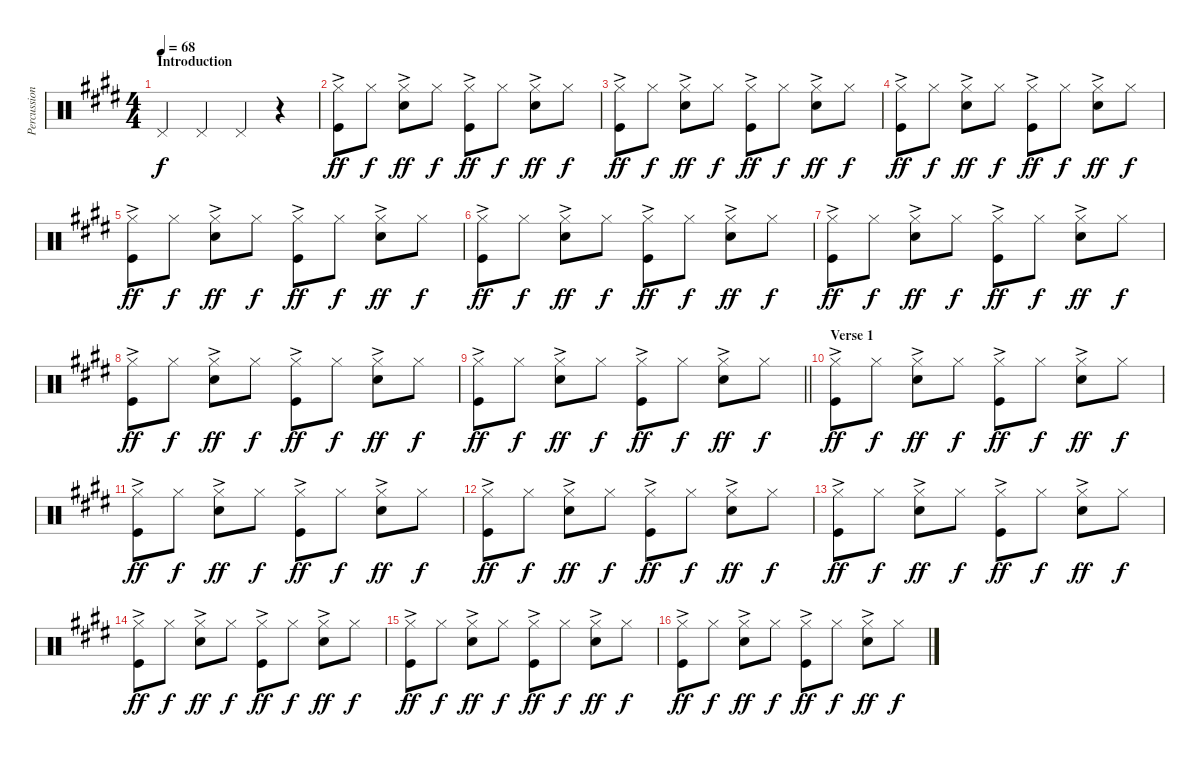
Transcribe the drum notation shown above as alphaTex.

\track ("Percussion" "Percussion") {instrument percussion}
\staff {score}
\articulation defaults
\ts (4 4)
\section ("" "Introduction")
\tempo 68
\clef neutral
\ks e "Pedal Hi-Hat (hit)".4{dy f} "Pedal Hi-Hat (hit)".4 "Pedal Hi-Hat (hit)".4
r.4 |
("Hi-Hat (closed)"{ac} "Kick (hit)").8{dy ff} "Hi-Hat (closed)".8{dy f} ("Hi-Hat (closed)"{ac} "Snare (hit) 2").8{dy ff} "Hi-Hat (closed)".8{dy f} ("Hi-Hat (closed)"{ac} "Kick (hit)").8{dy ff} "Hi-Hat (closed)".8{dy f} ("Hi-Hat (closed)"{ac} "Snare (hit) 2").8{dy ff} "Hi-Hat (closed)".8{dy f} |
("Hi-Hat (closed)"{ac} "Kick (hit)").8{dy ff} "Hi-Hat (closed)".8{dy f} ("Hi-Hat (closed)"{ac} "Snare (hit) 2").8{dy ff} "Hi-Hat (closed)".8{dy f} ("Hi-Hat (closed)"{ac} "Kick (hit)").8{dy ff} "Hi-Hat (closed)".8{dy f} ("Hi-Hat (closed)"{ac} "Snare (hit) 2").8{dy ff} "Hi-Hat (closed)".8{dy f} |
("Hi-Hat (closed)"{ac} "Kick (hit)").8{dy ff} "Hi-Hat (closed)".8{dy f} ("Hi-Hat (closed)"{ac} "Snare (hit) 2").8{dy ff} "Hi-Hat (closed)".8{dy f} ("Hi-Hat (closed)"{ac} "Kick (hit)").8{dy ff} "Hi-Hat (closed)".8{dy f} ("Hi-Hat (closed)"{ac} "Snare (hit) 2").8{dy ff} "Hi-Hat (closed)".8{dy f} |
("Hi-Hat (closed)"{ac} "Kick (hit)").8{dy ff} "Hi-Hat (closed)".8{dy f} ("Hi-Hat (closed)"{ac} "Snare (hit) 2").8{dy ff} "Hi-Hat (closed)".8{dy f} ("Hi-Hat (closed)"{ac} "Kick (hit)").8{dy ff} "Hi-Hat (closed)".8{dy f} ("Hi-Hat (closed)"{ac} "Snare (hit) 2").8{dy ff} "Hi-Hat (closed)".8{dy f} |
("Hi-Hat (closed)"{ac} "Kick (hit)").8{dy ff} "Hi-Hat (closed)".8{dy f} ("Hi-Hat (closed)"{ac} "Snare (hit) 2").8{dy ff} "Hi-Hat (closed)".8{dy f} ("Hi-Hat (closed)"{ac} "Kick (hit)").8{dy ff} "Hi-Hat (closed)".8{dy f} ("Hi-Hat (closed)"{ac} "Snare (hit) 2").8{dy ff} "Hi-Hat (closed)".8{dy f} |
("Hi-Hat (closed)"{ac} "Kick (hit)").8{dy ff} "Hi-Hat (closed)".8{dy f} ("Hi-Hat (closed)"{ac} "Snare (hit) 2").8{dy ff} "Hi-Hat (closed)".8{dy f} ("Hi-Hat (closed)"{ac} "Kick (hit)").8{dy ff} "Hi-Hat (closed)".8{dy f} ("Hi-Hat (closed)"{ac} "Snare (hit) 2").8{dy ff} "Hi-Hat (closed)".8{dy f} |
("Hi-Hat (closed)"{ac} "Kick (hit)").8{dy ff} "Hi-Hat (closed)".8{dy f} ("Hi-Hat (closed)"{ac} "Snare (hit) 2").8{dy ff} "Hi-Hat (closed)".8{dy f} ("Hi-Hat (closed)"{ac} "Kick (hit)").8{dy ff} "Hi-Hat (closed)".8{dy f} ("Hi-Hat (closed)"{ac} "Snare (hit) 2").8{dy ff} "Hi-Hat (closed)".8{dy f} |
\barLineRight lightlight
("Hi-Hat (closed)"{ac} "Kick (hit)").8{dy ff} "Hi-Hat (closed)".8{dy f} ("Hi-Hat (closed)"{ac} "Snare (hit) 2").8{dy ff} "Hi-Hat (closed)".8{dy f} ("Hi-Hat (closed)"{ac} "Kick (hit)").8{dy ff} "Hi-Hat (closed)".8{dy f} ("Hi-Hat (closed)"{ac} "Snare (hit) 2").8{dy ff} "Hi-Hat (closed)".8{dy f} |
\section ("" "Verse 1")
("Hi-Hat (closed)"{ac} "Kick (hit)").8{dy ff} "Hi-Hat (closed)".8{dy f} ("Hi-Hat (closed)"{ac} "Snare (hit) 2").8{dy ff} "Hi-Hat (closed)".8{dy f} ("Hi-Hat (closed)"{ac} "Kick (hit)").8{dy ff} "Hi-Hat (closed)".8{dy f} ("Hi-Hat (closed)"{ac} "Snare (hit) 2").8{dy ff} "Hi-Hat (closed)".8{dy f} |
("Hi-Hat (closed)"{ac} "Kick (hit)").8{dy ff} "Hi-Hat (closed)".8{dy f} ("Hi-Hat (closed)"{ac} "Snare (hit) 2").8{dy ff} "Hi-Hat (closed)".8{dy f} ("Hi-Hat (closed)"{ac} "Kick (hit)").8{dy ff} "Hi-Hat (closed)".8{dy f} ("Hi-Hat (closed)"{ac} "Snare (hit) 2").8{dy ff} "Hi-Hat (closed)".8{dy f} |
("Hi-Hat (closed)"{ac} "Kick (hit)").8{dy ff} "Hi-Hat (closed)".8{dy f} ("Hi-Hat (closed)"{ac} "Snare (hit) 2").8{dy ff} "Hi-Hat (closed)".8{dy f} ("Hi-Hat (closed)"{ac} "Kick (hit)").8{dy ff} "Hi-Hat (closed)".8{dy f} ("Hi-Hat (closed)"{ac} "Snare (hit) 2").8{dy ff} "Hi-Hat (closed)".8{dy f} |
("Hi-Hat (closed)"{ac} "Kick (hit)").8{dy ff} "Hi-Hat (closed)".8{dy f} ("Hi-Hat (closed)"{ac} "Snare (hit) 2").8{dy ff} "Hi-Hat (closed)".8{dy f} ("Hi-Hat (closed)"{ac} "Kick (hit)").8{dy ff} "Hi-Hat (closed)".8{dy f} ("Hi-Hat (closed)"{ac} "Snare (hit) 2").8{dy ff} "Hi-Hat (closed)".8{dy f} |
("Hi-Hat (closed)"{ac} "Kick (hit)").8{dy ff} "Hi-Hat (closed)".8{dy f} ("Hi-Hat (closed)"{ac} "Snare (hit) 2").8{dy ff} "Hi-Hat (closed)".8{dy f} ("Hi-Hat (closed)"{ac} "Kick (hit)").8{dy ff} "Hi-Hat (closed)".8{dy f} ("Hi-Hat (closed)"{ac} "Snare (hit) 2").8{dy ff} "Hi-Hat (closed)".8{dy f} |
("Hi-Hat (closed)"{ac} "Kick (hit)").8{dy ff} "Hi-Hat (closed)".8{dy f} ("Hi-Hat (closed)"{ac} "Snare (hit) 2").8{dy ff} "Hi-Hat (closed)".8{dy f} ("Hi-Hat (closed)"{ac} "Kick (hit)").8{dy ff} "Hi-Hat (closed)".8{dy f} ("Hi-Hat (closed)"{ac} "Snare (hit) 2").8{dy ff} "Hi-Hat (closed)".8{dy f} |
("Hi-Hat (closed)"{ac} "Kick (hit)").8{dy ff} "Hi-Hat (closed)".8{dy f} ("Hi-Hat (closed)"{ac} "Snare (hit) 2").8{dy ff} "Hi-Hat (closed)".8{dy f} ("Hi-Hat (closed)"{ac} "Kick (hit)").8{dy ff} "Hi-Hat (closed)".8{dy f} ("Hi-Hat (closed)"{ac} "Snare (hit) 2").8{dy ff} "Hi-Hat (closed)".8{dy f}
